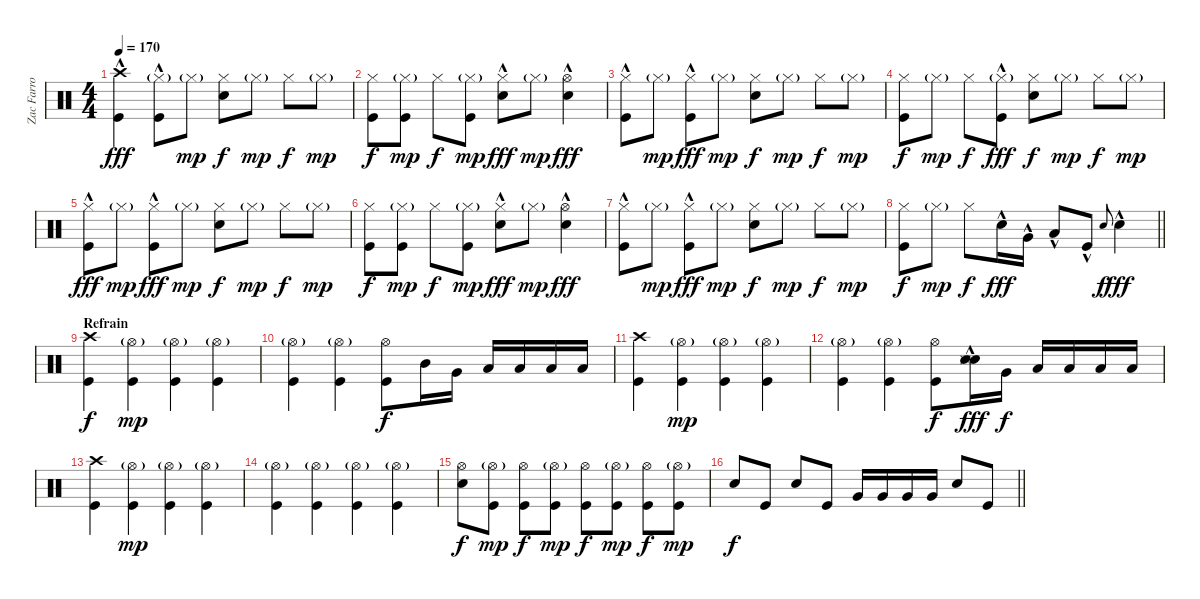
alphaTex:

\track ("Zac Farro (Drums)" "Zac Farro ") {instrument percussion}
\staff {score}
\articulation defaults
\ts (4 4)
\tempo 170
\clef neutral
\ks c
("Crash high (hit)"{hac} "Kick (hit)"{hac}).4{dy fff} ("Hi-Hat (closed)"{g} "Kick (hit)"{hac}).8 "Hi-Hat (closed)"{g}.8{dy mp} ("Hi-Hat (closed)" "Electric Snare (hit)").8{dy f} "Hi-Hat (closed)"{g}.8{dy mp} "Hi-Hat (closed)".8{dy f} "Hi-Hat (closed)"{g}.8{dy mp} |
("Hi-Hat (closed)" "Kick (hit)").8{dy f} ("Hi-Hat (closed)"{g} "Kick (hit)").8{dy mp} "Hi-Hat (closed)".8{dy f} ("Hi-Hat (closed)"{g} "Kick (hit)").8{dy mp} ("Hi-Hat (closed)" "Electric Snare (hit)"{hac}).8{dy fff} "Hi-Hat (closed)"{g}.8{dy mp} ("Hi-Hat (open)"{hac} "Electric Snare (hit)"{hac}).4{dy fff} |
("Hi-Hat (closed)" "Kick (hit)"{hac}).8 "Hi-Hat (closed)"{g}.8{dy mp} ("Hi-Hat (closed)" "Kick (hit)"{hac}).8{dy fff} "Hi-Hat (closed)"{g}.8{dy mp} ("Hi-Hat (closed)" "Electric Snare (hit)").8{dy f} "Hi-Hat (closed)"{g}.8{dy mp} "Hi-Hat (closed)".8{dy f} "Hi-Hat (closed)"{g}.8{dy mp} |
("Hi-Hat (closed)" "Kick (hit)").8{dy f} "Hi-Hat (closed)"{g}.8{dy mp} "Hi-Hat (closed)".8{dy f} ("Hi-Hat (closed)"{g} "Kick (hit)"{hac}).8{dy fff} ("Hi-Hat (closed)" "Electric Snare (hit)").8{dy f} "Hi-Hat (closed)"{g}.8{dy mp} "Hi-Hat (closed)".8{dy f} "Hi-Hat (closed)"{g}.8{dy mp} |
("Hi-Hat (closed)" "Kick (hit)"{hac}).8{dy fff} "Hi-Hat (closed)"{g}.8{dy mp} ("Hi-Hat (closed)" "Kick (hit)"{hac}).8{dy fff} "Hi-Hat (closed)"{g}.8{dy mp} ("Hi-Hat (closed)" "Electric Snare (hit)").8{dy f} "Hi-Hat (closed)"{g}.8{dy mp} "Hi-Hat (closed)".8{dy f} "Hi-Hat (closed)"{g}.8{dy mp} |
("Hi-Hat (closed)" "Kick (hit)").8{dy f} ("Hi-Hat (closed)"{g} "Kick (hit)").8{dy mp} "Hi-Hat (closed)".8{dy f} ("Hi-Hat (closed)"{g} "Kick (hit)").8{dy mp} ("Hi-Hat (closed)" "Electric Snare (hit)"{hac}).8{dy fff} "Hi-Hat (closed)"{g}.8{dy mp} ("Hi-Hat (open)"{hac} "Electric Snare (hit)"{hac}).4{dy fff} |
("Hi-Hat (closed)" "Kick (hit)"{hac}).8 "Hi-Hat (closed)"{g}.8{dy mp} ("Hi-Hat (closed)" "Kick (hit)"{hac}).8{dy fff} "Hi-Hat (closed)"{g}.8{dy mp} ("Hi-Hat (closed)" "Electric Snare (hit)").8{dy f} "Hi-Hat (closed)"{g}.8{dy mp} "Hi-Hat (closed)".8{dy f} "Hi-Hat (closed)"{g}.8{dy mp} |
\barLineRight lightlight
("Hi-Hat (closed)" "Kick (hit)").8{dy f} "Hi-Hat (closed)"{g}.8{dy mp} "Hi-Hat (closed)".8{dy f} "Electric Snare (hit)"{hac}.16{dy fff} "Very Low Tom (hit)"{hac}.16 "Low Floor Tom (hit)"{hac}.8 "Kick (hit)"{hac}.8 "Electric Snare (hit)".8{gr onbeat dy f} "Electric Snare (hit)"{hac}.4{dy fff} |
\section ("" "Refrain")
("Crash high (hit)" "Kick (hit)").4{dy f} ("Hi-Hat (open)"{g} "Kick (hit)").4{dy mp} ("Hi-Hat (open)"{g} "Kick (hit)").4 ("Hi-Hat (open)"{g} "Kick (hit)").4 |
("Hi-Hat (open)"{g} "Kick (hit)").4 ("Hi-Hat (open)"{g} "Kick (hit)").4 ("Hi-Hat (open)" "Kick (hit)").8{dy f} "Mid Tom (hit)".16 "Very Low Tom (hit)".16 "Low Floor Tom (hit)".16 "Low Floor Tom (hit)".16 "Low Floor Tom (hit)".16 "Low Floor Tom (hit)".16 |
("Crash high (hit)" "Kick (hit)").4 ("Hi-Hat (open)"{g} "Kick (hit)").4{dy mp} ("Hi-Hat (open)"{g} "Kick (hit)").4 ("Hi-Hat (open)"{g} "Kick (hit)").4 |
("Hi-Hat (open)"{g} "Kick (hit)").4 ("Hi-Hat (open)"{g} "Kick (hit)").4 ("Hi-Hat (open)" "Kick (hit)").8{dy f} ("Snare (hit) 2"{hac} "Snare (side stick) 3"{hac} "Electric Snare (hit)"{hac}).16{dy fff} "Very Low Tom (hit)".16{dy f} "Low Floor Tom (hit)".16 "Low Floor Tom (hit)".16 "Low Floor Tom (hit)".16 "Low Floor Tom (hit)".16 |
("Crash high (hit)" "Kick (hit)").4 ("Hi-Hat (open)"{g} "Kick (hit)").4{dy mp} ("Hi-Hat (open)"{g} "Kick (hit)").4 ("Hi-Hat (open)"{g} "Kick (hit)").4 |
("Hi-Hat (open)"{g} "Kick (hit)").4 ("Hi-Hat (open)"{g} "Kick (hit)").4 ("Hi-Hat (open)"{g} "Kick (hit)").4 ("Hi-Hat (open)"{g} "Kick (hit)").4 |
("Hi-Hat (open)" "Electric Snare (hit)").8{dy f} ("Hi-Hat (open)"{g} "Kick (hit)").8{dy mp} ("Hi-Hat (open)" "Kick (hit)").8{dy f} ("Hi-Hat (open)"{g} "Kick (hit)").8{dy mp} ("Hi-Hat (open)" "Kick (hit)").8{dy f} ("Hi-Hat (open)"{g} "Kick (hit)").8{dy mp} ("Hi-Hat (open)" "Kick (hit)").8{dy f} ("Hi-Hat (open)"{g} "Kick (hit)").8{dy mp} |
\barLineRight lightlight "Electric Snare (hit)".8{dy f} "Kick (hit)".8 "Electric Snare (hit)".8 "Kick (hit)".8 "Very Low Tom (hit)".16 "Very Low Tom (hit)".16 "Very Low Tom (hit)".16 "Very Low Tom (hit)".16 "Electric Snare (hit)".8 "Kick (hit)".8
